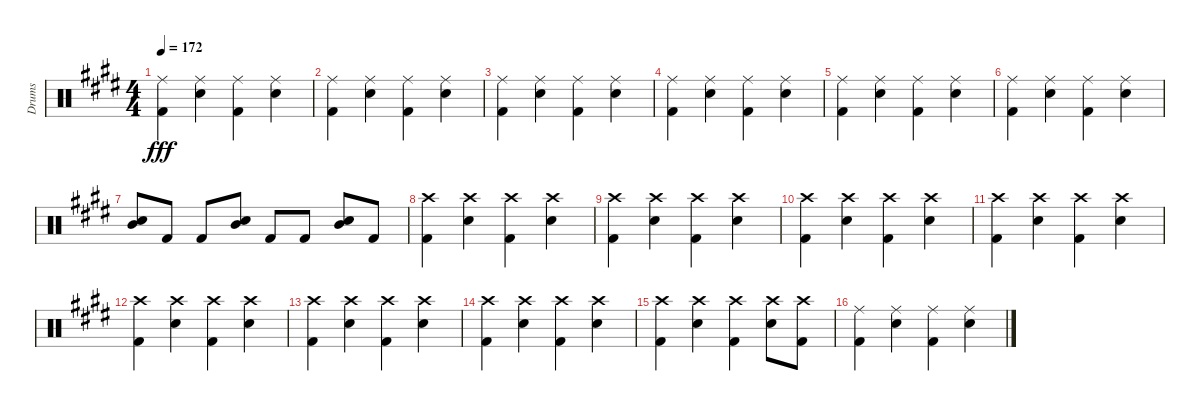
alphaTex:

\track ("Drums" "Drums") {instrument percussion}
\staff {score}
\articulation defaults
\ts (4 4)
\tempo 172
\clef neutral
\ks e
("Ride (middle)" "Kick (hit) 2").4{dy fff} ("Ride (middle)" "Electric Snare (hit)").4 ("Ride (middle)" "Kick (hit) 2").4 ("Ride (middle)" "Electric Snare (hit)").4 |
("Ride (middle)" "Kick (hit) 2").4 ("Ride (middle)" "Electric Snare (hit)").4 ("Ride (middle)" "Kick (hit) 2").4 ("Ride (middle)" "Electric Snare (hit)").4 |
("Ride (middle)" "Kick (hit) 2").4 ("Ride (middle)" "Electric Snare (hit)").4 ("Ride (middle)" "Kick (hit) 2").4 ("Ride (middle)" "Electric Snare (hit)").4 |
("Ride (middle)" "Kick (hit) 2").4 ("Ride (middle)" "Electric Snare (hit)").4 ("Ride (middle)" "Kick (hit) 2").4 ("Ride (middle)" "Electric Snare (hit)").4 |
("Ride (middle)" "Kick (hit) 2").4 ("Ride (middle)" "Electric Snare (hit)").4 ("Ride (middle)" "Kick (hit) 2").4 ("Ride (middle)" "Electric Snare (hit)").4 |
("Ride (middle)" "Kick (hit) 2").4 ("Ride (middle)" "Electric Snare (hit)").4 ("Ride (middle)" "Kick (hit) 2").4 ("Ride (middle)" "Electric Snare (hit)").4 |
("Electric Snare (hit)" "Mid Tom (hit)").8 "Kick (hit) 2".8 "Kick (hit) 2".8 ("Electric Snare (hit)" "Mid Tom (hit)").8 "Kick (hit) 2".8 "Kick (hit) 2".8 ("Electric Snare (hit)" "Mid Tom (hit)").8 "Kick (hit) 2".8 |
("Crash high (hit)" "Kick (hit) 2").4 ("Crash high (hit)" "Electric Snare (hit)").4 ("Crash high (hit)" "Kick (hit) 2").4 ("Crash high (hit)" "Electric Snare (hit)").4 |
("Crash high (hit)" "Kick (hit) 2").4 ("Crash high (hit)" "Electric Snare (hit)").4 ("Crash high (hit)" "Kick (hit) 2").4 ("Crash high (hit)" "Electric Snare (hit)").4 |
("Crash high (hit)" "Kick (hit) 2").4 ("Crash high (hit)" "Electric Snare (hit)").4 ("Crash high (hit)" "Kick (hit) 2").4 ("Crash high (hit)" "Electric Snare (hit)").4 |
("Crash high (hit)" "Kick (hit) 2").4 ("Crash high (hit)" "Electric Snare (hit)").4 ("Crash high (hit)" "Kick (hit) 2").4 ("Crash high (hit)" "Electric Snare (hit)").4 |
("Crash high (hit)" "Kick (hit) 2").4 ("Crash high (hit)" "Electric Snare (hit)").4 ("Crash high (hit)" "Kick (hit) 2").4 ("Crash high (hit)" "Electric Snare (hit)").4 |
("Crash high (hit)" "Kick (hit) 2").4 ("Crash high (hit)" "Electric Snare (hit)").4 ("Crash high (hit)" "Kick (hit) 2").4 ("Crash high (hit)" "Electric Snare (hit)").4 |
("Crash high (hit)" "Kick (hit) 2").4 ("Crash high (hit)" "Electric Snare (hit)").4 ("Crash high (hit)" "Kick (hit) 2").4 ("Crash high (hit)" "Electric Snare (hit)").4 |
("Crash high (hit)" "Kick (hit) 2").4 ("Crash high (hit)" "Electric Snare (hit)").4 ("Crash high (hit)" "Kick (hit) 2").4 ("Crash high (hit)" "Electric Snare (hit)").8 ("Crash high (hit)" "Kick (hit) 2").8 |
("Ride (middle)" "Kick (hit) 2").4 ("Ride (middle)" "Electric Snare (hit)").4 ("Ride (middle)" "Kick (hit) 2").4 ("Ride (middle)" "Electric Snare (hit)").4
